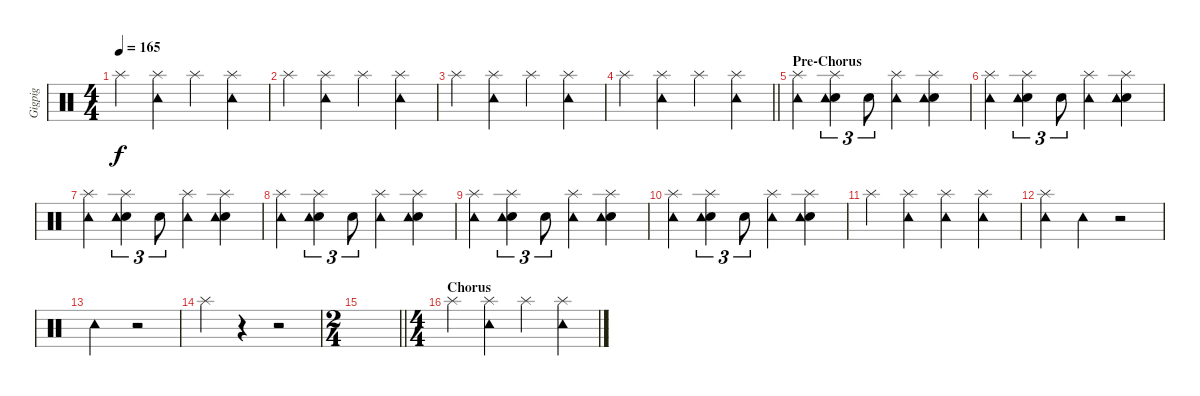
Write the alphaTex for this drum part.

\track ("Gigpig" "Gigpig") {instrument percussion}
\staff {score}
\articulation defaults
\ts (4 4)
\tempo 165
\clef neutral
\ks c "Splash (hit)".4{dy f}
("Splash (hit)" "Tambourine (hit)").4 "Splash (hit)".4 ("Splash (hit)" "Tambourine (hit)").4 |
"Splash (hit)".4 ("Splash (hit)" "Tambourine (hit)").4 "Splash (hit)".4 ("Splash (hit)" "Tambourine (hit)").4 |
"Splash (hit)".4 ("Splash (hit)" "Tambourine (hit)").4 "Splash (hit)".4 ("Splash (hit)" "Tambourine (hit)").4 |
\barLineRight lightlight "Splash (hit)".4
("Splash (hit)" "Tambourine (hit)").4 "Splash (hit)".4 ("Splash (hit)" "Tambourine (hit)").4 |
\section ("" "Pre-Chorus")
("Splash (hit)" "Tambourine (hit)").4 ("Splash (hit)" "Hand Clap (hit)" "Tambourine (hit)").4{tu (3 2)} "Hand Clap (hit)".8{tu (3 2)} ("Splash (hit)" "Tambourine (hit)").4 ("Splash (hit)" "Hand Clap (hit)" "Tambourine (hit)").4 |
("Splash (hit)" "Tambourine (hit)").4 ("Splash (hit)" "Hand Clap (hit)" "Tambourine (hit)").4{tu (3 2)} "Hand Clap (hit)".8{tu (3 2)} ("Splash (hit)" "Tambourine (hit)").4 ("Splash (hit)" "Hand Clap (hit)" "Tambourine (hit)").4 |
("Splash (hit)" "Tambourine (hit)").4 ("Splash (hit)" "Hand Clap (hit)" "Tambourine (hit)").4{tu (3 2)} "Hand Clap (hit)".8{tu (3 2)} ("Splash (hit)" "Tambourine (hit)").4 ("Splash (hit)" "Hand Clap (hit)" "Tambourine (hit)").4 |
("Splash (hit)" "Tambourine (hit)").4 ("Splash (hit)" "Hand Clap (hit)" "Tambourine (hit)").4{tu (3 2)} "Hand Clap (hit)".8{tu (3 2)} ("Splash (hit)" "Tambourine (hit)").4 ("Splash (hit)" "Hand Clap (hit)" "Tambourine (hit)").4 |
("Splash (hit)" "Tambourine (hit)").4 ("Splash (hit)" "Hand Clap (hit)" "Tambourine (hit)").4{tu (3 2)} "Hand Clap (hit)".8{tu (3 2)} ("Splash (hit)" "Tambourine (hit)").4 ("Splash (hit)" "Hand Clap (hit)" "Tambourine (hit)").4 |
("Splash (hit)" "Tambourine (hit)").4 ("Splash (hit)" "Hand Clap (hit)" "Tambourine (hit)").4{tu (3 2)} "Hand Clap (hit)".8{tu (3 2)} ("Splash (hit)" "Tambourine (hit)").4 ("Splash (hit)" "Hand Clap (hit)" "Tambourine (hit)").4 |
"Splash (hit)".4 ("Splash (hit)" "Tambourine (hit)").4 ("Splash (hit)" "Tambourine (hit)").4 ("Splash (hit)" "Tambourine (hit)").4 |
("Splash (hit)" "Tambourine (hit)").4 "Tambourine (hit)".4 r.2 |
"Tambourine (hit)".2 r.2 |
"Splash (hit)".4 r.4 r.2 |
\ts (2 4)
\barLineRight lightlight
|
\ts (4 4)
\section ("" "Chorus")
"Splash (hit)".4 ("Splash (hit)" "Tambourine (hit)").4 "Splash (hit)".4 ("Splash (hit)" "Tambourine (hit)").4
